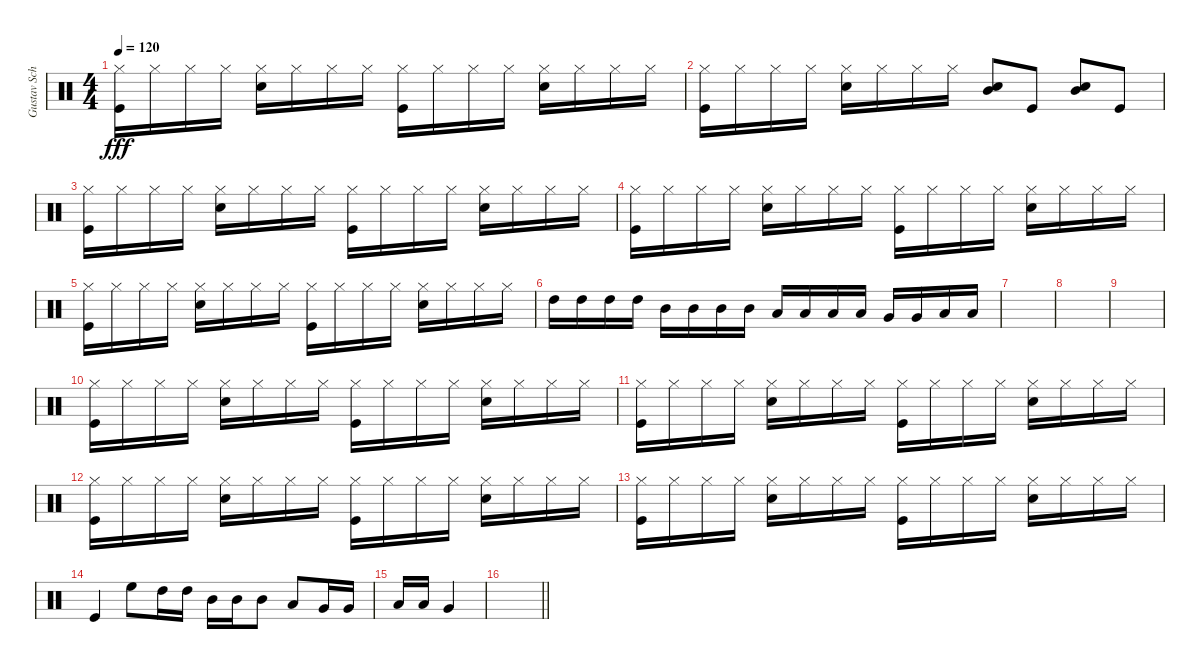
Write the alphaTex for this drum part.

\track ("Gustav Schäfer" "Gustav Sch") {instrument percussion}
\staff {score}
\articulation defaults
\ts (4 4)
\tempo 120
\clef neutral
\ks c
("Hi-Hat (closed)" "Kick (hit)").16{dy fff} "Hi-Hat (closed)".16 "Hi-Hat (closed)".16 "Hi-Hat (closed)".16 ("Hi-Hat (closed)" "Snare (hit) 2").16 "Hi-Hat (closed)".16 "Hi-Hat (closed)".16 "Hi-Hat (closed)".16 ("Hi-Hat (closed)" "Kick (hit)").16 "Hi-Hat (closed)".16 "Hi-Hat (closed)".16 "Hi-Hat (closed)".16 ("Hi-Hat (closed)" "Snare (hit) 2").16 "Hi-Hat (closed)".16 "Hi-Hat (closed)".16 "Hi-Hat (closed)".16 |
("Hi-Hat (closed)" "Kick (hit)").16 "Hi-Hat (closed)".16 "Hi-Hat (closed)".16 "Hi-Hat (closed)".16 ("Hi-Hat (closed)" "Snare (hit) 2").16 "Hi-Hat (closed)".16 "Hi-Hat (closed)".16 "Hi-Hat (closed)".16 ("Snare (hit) 2" "Mid Tom (hit)").8 "Kick (hit)".8 ("Mid Tom (hit)" "Snare (hit) 2").8 "Kick (hit)".8 |
("Hi-Hat (closed)" "Kick (hit)").16 "Hi-Hat (closed)".16 "Hi-Hat (closed)".16 "Hi-Hat (closed)".16 ("Hi-Hat (closed)" "Snare (hit) 2").16 "Hi-Hat (closed)".16 "Hi-Hat (closed)".16 "Hi-Hat (closed)".16 ("Hi-Hat (closed)" "Kick (hit)").16 "Hi-Hat (closed)".16 "Hi-Hat (closed)".16 "Hi-Hat (closed)".16 ("Hi-Hat (closed)" "Snare (hit) 2").16 "Hi-Hat (closed)".16 "Hi-Hat (closed)".16 "Hi-Hat (closed)".16 |
("Hi-Hat (closed)" "Kick (hit)").16 "Hi-Hat (closed)".16 "Hi-Hat (closed)".16 "Hi-Hat (closed)".16 ("Hi-Hat (closed)" "Snare (hit) 2").16 "Hi-Hat (closed)".16 "Hi-Hat (closed)".16 "Hi-Hat (closed)".16 ("Hi-Hat (closed)" "Kick (hit)").16 "Hi-Hat (closed)".16 "Hi-Hat (closed)".16 "Hi-Hat (closed)".16 ("Hi-Hat (closed)" "Snare (hit) 2").16 "Hi-Hat (closed)".16 "Hi-Hat (closed)".16 "Hi-Hat (closed)".16 |
("Hi-Hat (closed)" "Kick (hit)").16 "Hi-Hat (closed)".16 "Hi-Hat (closed)".16 "Hi-Hat (closed)".16 ("Hi-Hat (closed)" "Snare (hit) 2").16 "Hi-Hat (closed)".16 "Hi-Hat (closed)".16 "Hi-Hat (closed)".16 ("Hi-Hat (closed)" "Kick (hit)").16 "Hi-Hat (closed)".16 "Hi-Hat (closed)".16 "Hi-Hat (closed)".16 ("Hi-Hat (closed)" "Snare (hit) 2").16 "Hi-Hat (closed)".16 "Hi-Hat (closed)".16 "Hi-Hat (closed)".16 |
"High Tom (hit)".16 "High Tom (hit)".16 "High Tom (hit)".16 "High Tom (hit)".16 "Mid Tom (hit)".16 "Mid Tom (hit)".16 "Mid Tom (hit)".16 "Mid Tom (hit)".16 "Low Tom (hit)".16 "Low Tom (hit)".16 "Low Tom (hit)".16 "Low Tom (hit)".16 "Very Low Tom (hit)".16 "Very Low Tom (hit)".16 "Low Floor Tom (hit)".16 "Low Floor Tom (hit)".16 |
|
|
|
("Hi-Hat (closed)" "Kick (hit)").16 "Hi-Hat (closed)".16 "Hi-Hat (closed)".16 "Hi-Hat (closed)".16 ("Hi-Hat (closed)" "Snare (hit) 2").16 "Hi-Hat (closed)".16 "Hi-Hat (closed)".16 "Hi-Hat (closed)".16 ("Hi-Hat (closed)" "Kick (hit)").16 "Hi-Hat (closed)".16 "Hi-Hat (closed)".16 "Hi-Hat (closed)".16 ("Hi-Hat (closed)" "Snare (hit) 2").16 "Hi-Hat (closed)".16 "Hi-Hat (closed)".16 "Hi-Hat (closed)".16 |
("Hi-Hat (closed)" "Kick (hit)").16 "Hi-Hat (closed)".16 "Hi-Hat (closed)".16 "Hi-Hat (closed)".16 ("Hi-Hat (closed)" "Snare (hit) 2").16 "Hi-Hat (closed)".16 "Hi-Hat (closed)".16 "Hi-Hat (closed)".16 ("Hi-Hat (closed)" "Kick (hit)").16 "Hi-Hat (closed)".16 "Hi-Hat (closed)".16 "Hi-Hat (closed)".16 ("Hi-Hat (closed)" "Snare (hit) 2").16 "Hi-Hat (closed)".16 "Hi-Hat (closed)".16 "Hi-Hat (closed)".16 |
("Hi-Hat (closed)" "Kick (hit)").16 "Hi-Hat (closed)".16 "Hi-Hat (closed)".16 "Hi-Hat (closed)".16 ("Hi-Hat (closed)" "Snare (hit) 2").16 "Hi-Hat (closed)".16 "Hi-Hat (closed)".16 "Hi-Hat (closed)".16 ("Hi-Hat (closed)" "Kick (hit)").16 "Hi-Hat (closed)".16 "Hi-Hat (closed)".16 "Hi-Hat (closed)".16 ("Hi-Hat (closed)" "Snare (hit) 2").16 "Hi-Hat (closed)".16 "Hi-Hat (closed)".16 "Hi-Hat (closed)".16 |
("Hi-Hat (closed)" "Kick (hit)").16 "Hi-Hat (closed)".16 "Hi-Hat (closed)".16 "Hi-Hat (closed)".16 ("Hi-Hat (closed)" "Snare (hit) 2").16 "Hi-Hat (closed)".16 "Hi-Hat (closed)".16 "Hi-Hat (closed)".16 ("Hi-Hat (closed)" "Kick (hit)").16 "Hi-Hat (closed)".16 "Hi-Hat (closed)".16 "Hi-Hat (closed)".16 ("Hi-Hat (closed)" "Snare (hit) 2").16 "Hi-Hat (closed)".16 "Hi-Hat (closed)".16 "Hi-Hat (closed)".16 |
"Kick (hit)".4 "High Floor Tom (hit)".8 "High Tom (hit)".16 "High Tom (hit)".16 "Mid Tom (hit)".16 "Mid Tom (hit)".16 "Mid Tom (hit)".8 "Low Tom (hit)".8 "Very Low Tom (hit)".16 "Very Low Tom (hit)".16 |
"Low Floor Tom (hit)".16 "Low Floor Tom (hit)".16 "Very Low Tom (hit)".4 |
\barLineRight lightlight
